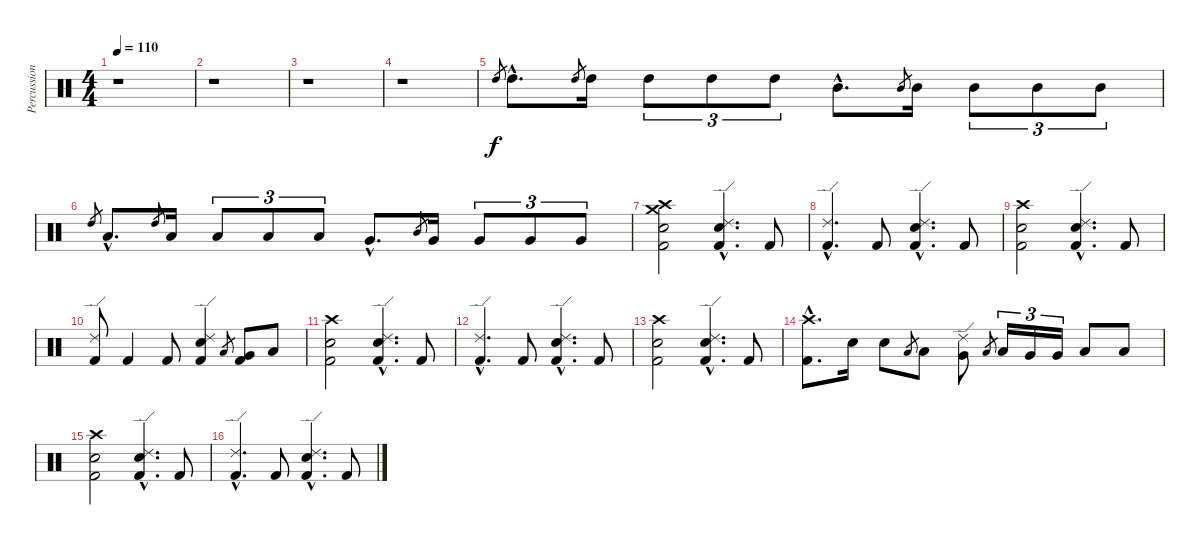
\track ("Percussion" "Percussion") {instrument percussion}
\staff {score}
\articulation defaults
\ts (4 4)
\tempo 110
\clef neutral
\ks c
r.1{dy f} |
r.1 |
r.1 |
r.1 |
"High Tom (hit)".8{gr} "High Tom (hit)"{hac}.8{d} "High Tom (hit)".8{gr} "High Tom (hit)".16 "High Tom (hit)".8{tu (3 2)} "High Tom (hit)".8{tu (3 2)} "High Tom (hit)".8{tu (3 2)} "Mid Tom (hit)"{hac}.8{d} "Mid Tom (hit)".8{gr} "Mid Tom (hit)".16 "Mid Tom (hit)".8{tu (3 2)} "Mid Tom (hit)".8{tu (3 2)} "Mid Tom (hit)".8{tu (3 2)} |
"High Tom (hit)".8{gr} "Low Tom (hit)"{hac}.8{d} "High Tom (hit)".8{gr} "Low Tom (hit)".16 "Low Tom (hit)".8{tu (3 2)} "Low Tom (hit)".8{tu (3 2)} "Low Tom (hit)".8{tu (3 2)} "Very Low Tom (hit)"{hac}.8{d} "Mid Tom (hit)".8{gr} "Very Low Tom (hit)".16 "Very Low Tom (hit)".8{tu (3 2)} "Very Low Tom (hit)".8{tu (3 2)} "Very Low Tom (hit)".8{tu (3 2)} |
("Crash high (hit)" "Crash medium (hit)" "Snare (hit) 2" "Kick (hit) 2").2 ("Ride (edge) 2"{hac} "Electric Snare (hit)"{hac} "Kick (hit) 2"{hac}).4{d} "Kick (hit) 2".8 |
("Ride (edge) 2"{hac} "Kick (hit) 2"{hac}).4{d} "Kick (hit) 2".8 ("Ride (edge) 2"{hac} "Electric Snare (hit)"{hac} "Kick (hit) 2"{hac}).4{d} "Kick (hit) 2".8 |
("Crash high (hit)" "Snare (hit) 2" "Kick (hit) 2").2 ("Ride (edge) 2"{hac} "Electric Snare (hit)"{hac} "Kick (hit) 2"{hac}).4{d} "Kick (hit) 2".8 |
("Ride (edge) 2" "Kick (hit) 2").8 "Kick (hit) 2".4 "Kick (hit) 2".8 ("Ride (edge) 2" "Electric Snare (hit)" "Kick (hit) 2").4 "Low Tom (hit)".8{gr} ("Very Low Tom (hit)" "Kick (hit) 2").8 "Low Floor Tom (hit)".8 |
("Crash high (hit)" "Snare (hit) 2" "Kick (hit) 2").2 ("Ride (edge) 2"{hac} "Electric Snare (hit)"{hac} "Kick (hit) 2"{hac}).4{d} "Kick (hit) 2".8 |
("Ride (edge) 2"{hac} "Kick (hit) 2"{hac}).4{d} "Kick (hit) 2".8 ("Ride (edge) 2"{hac} "Electric Snare (hit)"{hac} "Kick (hit) 2"{hac}).4{d} "Kick (hit) 2".8 |
("Crash high (hit)" "Snare (hit) 2" "Kick (hit) 2").2 ("Ride (edge) 2"{hac} "Electric Snare (hit)"{hac} "Kick (hit) 2"{hac}).4{d} "Kick (hit) 2".8 |
("Crash high (hit)"{hac} "Kick (hit) 2"{hac}).8{d} "Electric Snare (hit)".16 "Electric Snare (hit)".8 "Low Tom (hit)".8{gr} "Low Tom (hit)".8 ("Ride (edge) 2" "Very Low Tom (hit)").8 "Low Tom (hit)".8{gr} "Low Tom (hit)".16{tu (3 2)} "Very Low Tom (hit)".16{tu (3 2)} "Very Low Tom (hit)".16{tu (3 2)} "Low Floor Tom (hit)".8 "Low Floor Tom (hit)".8 |
("Crash high (hit)" "Snare (hit) 2" "Kick (hit) 2").2 ("Ride (edge) 2"{hac} "Electric Snare (hit)"{hac} "Kick (hit) 2"{hac}).4{d} "Kick (hit) 2".8 |
("Ride (edge) 2"{hac} "Kick (hit) 2"{hac}).4{d} "Kick (hit) 2".8 ("Ride (edge) 2"{hac} "Electric Snare (hit)"{hac} "Kick (hit) 2"{hac}).4{d} "Kick (hit) 2".8
